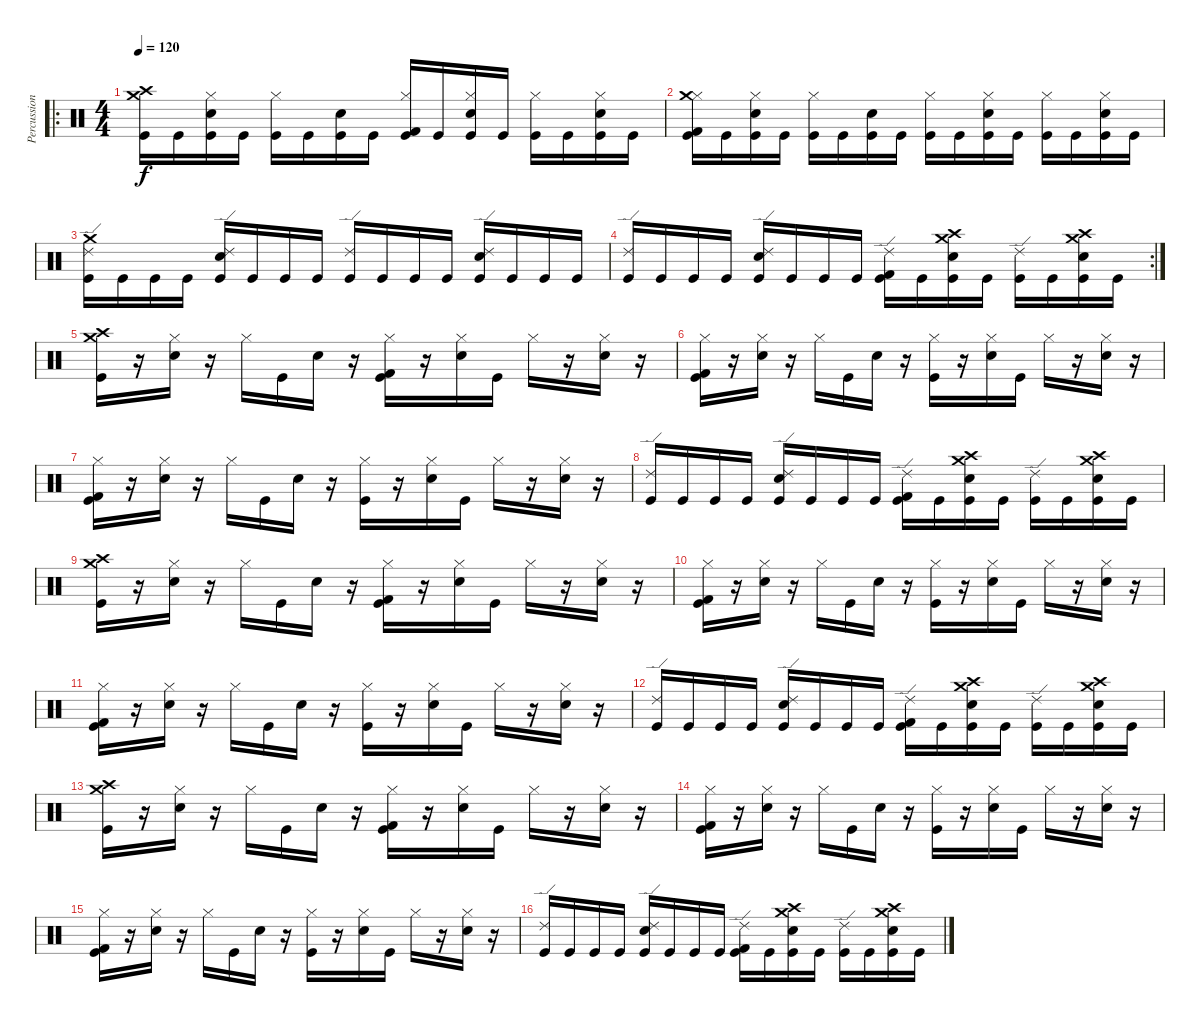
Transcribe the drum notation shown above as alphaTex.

\track ("Percussion" "Percussion") {instrument percussion}
\staff {score}
\articulation defaults
\ro
\ts (4 4)
\tempo 120
\clef neutral
\ks c
("Crash medium (hit)" "Crash high (hit)" "Kick (hit)").16{dy f} "Kick (hit)".16 ("Hi-Hat (closed)" "Snare (hit) 2" "Kick (hit)").16 "Kick (hit)".16 ("Hi-Hat (closed)" "Kick (hit)").16 "Kick (hit)".16 ("Snare (hit) 2" "Kick (hit)").16 "Kick (hit)".16 ("Hi-Hat (closed)" "Kick (hit) 2" "Kick (hit)").16 "Kick (hit)".16 ("Hi-Hat (closed)" "Snare (hit) 2" "Kick (hit)").16 "Kick (hit)".16 ("Hi-Hat (closed)" "Kick (hit)").16 "Kick (hit)".16 ("Hi-Hat (closed)" "Snare (hit) 2" "Kick (hit)").16 "Kick (hit)".16 |
("Hi-Hat (closed)" "Kick (hit) 2" "Kick (hit)" "Crash medium (hit)").16 "Kick (hit)".16 ("Hi-Hat (closed)" "Snare (hit) 2" "Kick (hit)").16 "Kick (hit)".16 ("Hi-Hat (closed)" "Kick (hit)").16 "Kick (hit)".16 ("Snare (hit) 2" "Kick (hit)").16 "Kick (hit)".16 ("Hi-Hat (closed)" "Kick (hit)").16 "Kick (hit)".16 ("Hi-Hat (closed)" "Snare (hit) 2" "Kick (hit)").16 "Kick (hit)".16 ("Hi-Hat (closed)" "Kick (hit)").16 "Kick (hit)".16 ("Hi-Hat (closed)" "Snare (hit) 2" "Kick (hit)").16 "Kick (hit)".16 |
("Ride (edge) 2" "Kick (hit)" "Crash medium (hit)").16 "Kick (hit)".16 "Kick (hit)".16 "Kick (hit)".16 ("Snare (hit) 2" "Ride (edge) 2" "Kick (hit)").16 "Kick (hit)".16 "Kick (hit)".16 "Kick (hit)".16 ("Ride (edge) 2" "Kick (hit)").16 "Kick (hit)".16 "Kick (hit)".16 "Kick (hit)".16 ("Snare (hit) 2" "Ride (edge) 2" "Kick (hit)").16 "Kick (hit)".16 "Kick (hit)".16 "Kick (hit)".16 |
\rc 2
("Ride (edge) 2" "Kick (hit)").16 "Kick (hit)".16 "Kick (hit)".16 "Kick (hit)".16 ("Snare (hit) 2" "Ride (edge) 2" "Kick (hit)").16 "Kick (hit)".16 "Kick (hit)".16 "Kick (hit)".16 ("Ride (edge) 2" "Kick (hit) 2" "Kick (hit)").16 "Kick (hit)".16 ("Crash high (hit)" "Snare (hit) 2" "Crash medium (hit)" "Kick (hit)").16 "Kick (hit)".16 ("Ride (edge) 2" "Kick (hit)").16 "Kick (hit)".16 ("Snare (hit) 2" "Crash high (hit)" "Crash medium (hit)" "Kick (hit)").16 "Kick (hit)".16 |
("Crash medium (hit)" "Crash high (hit)" "Kick (hit)").16 r.16 ("Hi-Hat (closed)" "Snare (hit) 2").16 r.16 "Hi-Hat (closed)".16 "Kick (hit)".16 "Snare (hit) 2".16 r.16 ("Hi-Hat (closed)" "Kick (hit) 2" "Kick (hit)").16 r.16 ("Hi-Hat (closed)" "Snare (hit) 2").16 "Kick (hit)".16 "Hi-Hat (closed)".16 r.16 ("Hi-Hat (closed)" "Snare (hit) 2").16 r.16 |
("Hi-Hat (closed)" "Kick (hit) 2" "Kick (hit)").16 r.16 ("Hi-Hat (closed)" "Snare (hit) 2").16 r.16 "Hi-Hat (closed)".16 "Kick (hit)".16 "Snare (hit) 2".16 r.16 ("Hi-Hat (closed)" "Kick (hit)").16 r.16 ("Hi-Hat (closed)" "Snare (hit) 2").16 "Kick (hit)".16 "Hi-Hat (closed)".16 r.16 ("Hi-Hat (closed)" "Snare (hit) 2").16 r.16 |
("Hi-Hat (closed)" "Kick (hit) 2" "Kick (hit)").16 r.16 ("Hi-Hat (closed)" "Snare (hit) 2").16 r.16 "Hi-Hat (closed)".16 "Kick (hit)".16 "Snare (hit) 2".16 r.16 ("Hi-Hat (closed)" "Kick (hit)").16 r.16 ("Hi-Hat (closed)" "Snare (hit) 2").16 "Kick (hit)".16 "Hi-Hat (closed)".16 r.16 ("Hi-Hat (closed)" "Snare (hit) 2").16 r.16 |
("Ride (edge) 2" "Kick (hit)").16 "Kick (hit)".16 "Kick (hit)".16 "Kick (hit)".16 ("Snare (hit) 2" "Ride (edge) 2" "Kick (hit)").16 "Kick (hit)".16 "Kick (hit)".16 "Kick (hit)".16 ("Ride (edge) 2" "Kick (hit) 2" "Kick (hit)").16 "Kick (hit)".16 ("Crash high (hit)" "Snare (hit) 2" "Crash medium (hit)" "Kick (hit)").16 "Kick (hit)".16 ("Ride (edge) 2" "Kick (hit)").16 "Kick (hit)".16 ("Snare (hit) 2" "Crash high (hit)" "Crash medium (hit)" "Kick (hit)").16 "Kick (hit)".16 |
("Crash medium (hit)" "Crash high (hit)" "Kick (hit)").16 r.16 ("Hi-Hat (closed)" "Snare (hit) 2").16 r.16 "Hi-Hat (closed)".16 "Kick (hit)".16 "Snare (hit) 2".16 r.16 ("Hi-Hat (closed)" "Kick (hit) 2" "Kick (hit)").16 r.16 ("Hi-Hat (closed)" "Snare (hit) 2").16 "Kick (hit)".16 "Hi-Hat (closed)".16 r.16 ("Hi-Hat (closed)" "Snare (hit) 2").16 r.16 |
("Hi-Hat (closed)" "Kick (hit) 2" "Kick (hit)").16 r.16 ("Hi-Hat (closed)" "Snare (hit) 2").16 r.16 "Hi-Hat (closed)".16 "Kick (hit)".16 "Snare (hit) 2".16 r.16 ("Hi-Hat (closed)" "Kick (hit)").16 r.16 ("Hi-Hat (closed)" "Snare (hit) 2").16 "Kick (hit)".16 "Hi-Hat (closed)".16 r.16 ("Hi-Hat (closed)" "Snare (hit) 2").16 r.16 |
("Hi-Hat (closed)" "Kick (hit) 2" "Kick (hit)").16 r.16 ("Hi-Hat (closed)" "Snare (hit) 2").16 r.16 "Hi-Hat (closed)".16 "Kick (hit)".16 "Snare (hit) 2".16 r.16 ("Hi-Hat (closed)" "Kick (hit)").16 r.16 ("Hi-Hat (closed)" "Snare (hit) 2").16 "Kick (hit)".16 "Hi-Hat (closed)".16 r.16 ("Hi-Hat (closed)" "Snare (hit) 2").16 r.16 |
("Ride (edge) 2" "Kick (hit)").16 "Kick (hit)".16 "Kick (hit)".16 "Kick (hit)".16 ("Snare (hit) 2" "Ride (edge) 2" "Kick (hit)").16 "Kick (hit)".16 "Kick (hit)".16 "Kick (hit)".16 ("Ride (edge) 2" "Kick (hit) 2" "Kick (hit)").16 "Kick (hit)".16 ("Crash high (hit)" "Snare (hit) 2" "Crash medium (hit)" "Kick (hit)").16 "Kick (hit)".16 ("Ride (edge) 2" "Kick (hit)").16 "Kick (hit)".16 ("Snare (hit) 2" "Crash high (hit)" "Crash medium (hit)" "Kick (hit)").16 "Kick (hit)".16 |
("Crash medium (hit)" "Crash high (hit)" "Kick (hit)").16 r.16 ("Hi-Hat (closed)" "Snare (hit) 2").16 r.16 "Hi-Hat (closed)".16 "Kick (hit)".16 "Snare (hit) 2".16 r.16 ("Hi-Hat (closed)" "Kick (hit) 2" "Kick (hit)").16 r.16 ("Hi-Hat (closed)" "Snare (hit) 2").16 "Kick (hit)".16 "Hi-Hat (closed)".16 r.16 ("Hi-Hat (closed)" "Snare (hit) 2").16 r.16 |
("Hi-Hat (closed)" "Kick (hit) 2" "Kick (hit)").16 r.16 ("Hi-Hat (closed)" "Snare (hit) 2").16 r.16 "Hi-Hat (closed)".16 "Kick (hit)".16 "Snare (hit) 2".16 r.16 ("Hi-Hat (closed)" "Kick (hit)").16 r.16 ("Hi-Hat (closed)" "Snare (hit) 2").16 "Kick (hit)".16 "Hi-Hat (closed)".16 r.16 ("Hi-Hat (closed)" "Snare (hit) 2").16 r.16 |
("Hi-Hat (closed)" "Kick (hit) 2" "Kick (hit)").16 r.16 ("Hi-Hat (closed)" "Snare (hit) 2").16 r.16 "Hi-Hat (closed)".16 "Kick (hit)".16 "Snare (hit) 2".16 r.16 ("Hi-Hat (closed)" "Kick (hit)").16 r.16 ("Hi-Hat (closed)" "Snare (hit) 2").16 "Kick (hit)".16 "Hi-Hat (closed)".16 r.16 ("Hi-Hat (closed)" "Snare (hit) 2").16 r.16 |
("Ride (edge) 2" "Kick (hit)").16 "Kick (hit)".16 "Kick (hit)".16 "Kick (hit)".16 ("Snare (hit) 2" "Ride (edge) 2" "Kick (hit)").16 "Kick (hit)".16 "Kick (hit)".16 "Kick (hit)".16 ("Ride (edge) 2" "Kick (hit) 2" "Kick (hit)").16 "Kick (hit)".16 ("Crash high (hit)" "Snare (hit) 2" "Crash medium (hit)" "Kick (hit)").16 "Kick (hit)".16 ("Ride (edge) 2" "Kick (hit)").16 "Kick (hit)".16 ("Snare (hit) 2" "Crash high (hit)" "Crash medium (hit)" "Kick (hit)").16 "Kick (hit)".16
